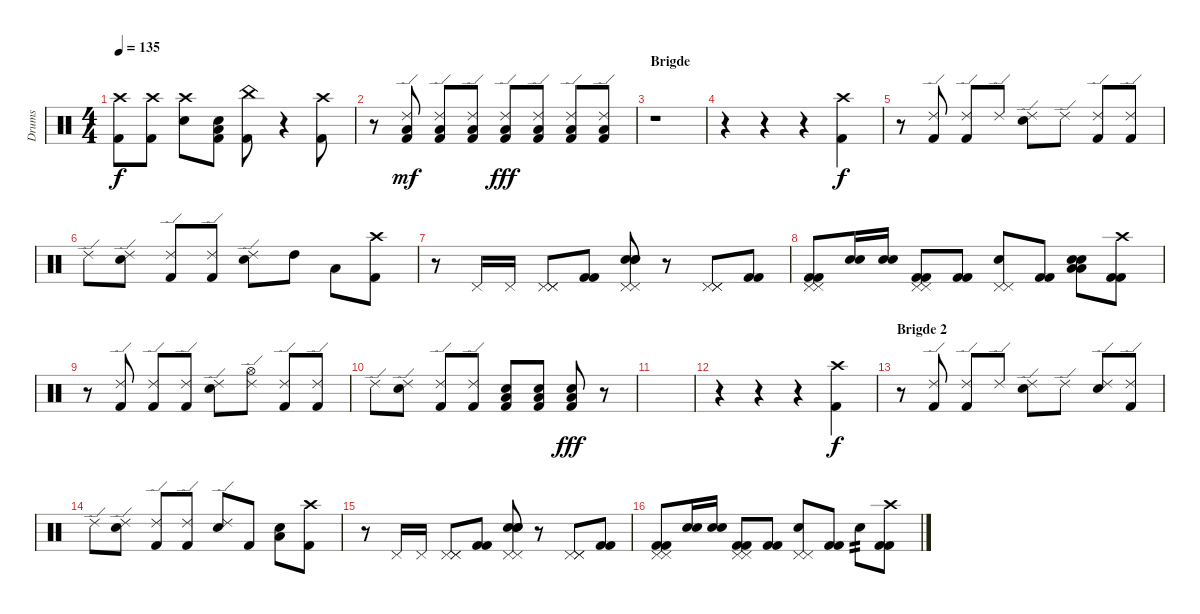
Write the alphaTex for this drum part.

\track ("Drums" "Drums") {instrument percussion}
\staff {score}
\articulation defaults
\ts (4 4)
\tempo 135
\clef neutral
\ks c
("Crash high (hit)" "Kick (hit) 2").8{dy f} ("Crash high (hit)" "Kick (hit) 2").8 ("Crash high (hit)" "Snare (hit) 2").8 ("Snare (hit) 2" "Low Floor Tom (hit)" "Kick (hit) 2").8 ("China (hit)" "Kick (hit) 2").8 r.4 ("Crash high (hit)" "Kick (hit) 2").8 |
r.8 ("Ride (edge) 2" "Low Floor Tom (hit)" "Kick (hit) 2").8{dy mf} ("Ride (edge) 2" "Low Floor Tom (hit)" "Kick (hit) 2").8 ("Ride (edge) 2" "Low Floor Tom (hit)" "Kick (hit) 2").8 ("Ride (edge) 2" "Low Floor Tom (hit)" "Kick (hit) 2").8{dy fff} ("Ride (edge) 2" "Low Floor Tom (hit)" "Kick (hit) 2").8 ("Ride (edge) 2" "Low Floor Tom (hit)" "Kick (hit) 2").8 ("Ride (edge) 2" "Low Floor Tom (hit)" "Kick (hit) 2").8 |
\section ("" "Brigde")
r.1 |
r.4 r.4 r.4 ("Crash high (hit)" "Kick (hit) 2").4{dy f} |
r.8 ("Ride (edge) 2" "Kick (hit) 2").8 ("Ride (edge) 2" "Kick (hit) 2").8 "Ride (edge) 2".8 ("Ride (edge) 2" "Snare (hit) 2").8 "Ride (edge) 2".8 ("Ride (edge) 2" "Kick (hit) 2").8 ("Ride (edge) 2" "Kick (hit) 2").8 |
"Ride (edge) 2".8 ("Ride (edge) 2" "Snare (hit) 2").8 ("Ride (edge) 2" "Kick (hit) 2").8 ("Ride (edge) 2" "Kick (hit) 2").8 ("Ride (edge) 2" "Snare (hit) 2").8 "High Tom (hit)".8 "Low Floor Tom (hit)".8 ("Crash high (hit)" "Kick (hit) 2").8 |
r.8 "Pedal Hi-Hat (hit)".16 "Pedal Hi-Hat (hit)".16 ("Pedal Hi-Hat (hit)" "Pedal Hi-Hat (hit)" "Pedal Hi-Hat (hit)").8 ("Kick (hit) 2" "Kick (hit) 2").8 ("Pedal Hi-Hat (hit)" "Pedal Hi-Hat (hit)" "Snare (hit) 2" "Snare (hit) 2" "Snare (hit) 2").8 r.8 ("Pedal Hi-Hat (hit)" "Pedal Hi-Hat (hit)" "Pedal Hi-Hat (hit)").8 ("Kick (hit) 2" "Kick (hit) 2").8 |
("Pedal Hi-Hat (hit)" "Pedal Hi-Hat (hit)" "Kick (hit) 2" "Kick (hit) 2").8 ("Snare (hit) 2" "Snare (hit) 2").16 ("Snare (hit) 2" "Snare (hit) 2").16 ("Pedal Hi-Hat (hit)" "Pedal Hi-Hat (hit)" "Kick (hit) 2" "Kick (hit) 2").8 ("Kick (hit) 2" "Kick (hit) 2").8 ("Pedal Hi-Hat (hit)" "Pedal Hi-Hat (hit)" "Snare (hit) 2").8 ("Kick (hit) 2" "Kick (hit) 2").8 ("Snare (hit) 2" "Snare (hit) 2" "Low Floor Tom (hit)" "Low Floor Tom (hit)").8 ("Crash high (hit)" "Kick (hit) 2" "Kick (hit) 2").8 |
r.8 ("Ride (edge) 2" "Kick (hit) 2").8 ("Ride (edge) 2" "Kick (hit) 2").8 ("Ride (edge) 2" "Kick (hit) 2").8 ("Ride (edge) 2" "Snare (hit) 2").8 ("Ride (edge) 2" "Hi-Hat (open)").8 ("Ride (edge) 2" "Kick (hit) 2").8 ("Ride (edge) 2" "Kick (hit) 2").8 |
"Ride (edge) 2".8 ("Ride (edge) 2" "Snare (hit) 2").8 ("Ride (edge) 2" "Kick (hit) 2").8 ("Ride (edge) 2" "Kick (hit) 2").8 ("Low Floor Tom (hit)" "Snare (hit) 2" "Kick (hit) 2").8 ("Low Floor Tom (hit)" "Snare (hit) 2" "Kick (hit) 2").8 ("Low Floor Tom (hit)" "Snare (hit) 2" "Kick (hit) 2").8{dy fff} r.8 |
|
r.4 r.4 r.4 ("Crash high (hit)" "Kick (hit) 2").4{dy f} |
\section ("" "Brigde 2")
r.8 ("Ride (edge) 2" "Kick (hit) 2").8 ("Ride (edge) 2" "Kick (hit) 2").8 "Ride (edge) 2".8 ("Ride (edge) 2" "Snare (hit) 2").8 "Ride (edge) 2".8 ("Ride (edge) 2" "Snare (hit) 2").8 ("Ride (edge) 2" "Kick (hit) 2").8 |
"Ride (edge) 2".8 ("Ride (edge) 2" "Snare (hit) 2").8 ("Ride (edge) 2" "Kick (hit) 2").8 ("Ride (edge) 2" "Kick (hit) 2").8 ("Ride (edge) 2" "Snare (hit) 2").8 "Kick (hit) 2".8 ("Snare (hit) 2" "Low Floor Tom (hit)").8 ("Crash high (hit)" "Kick (hit) 2").8 |
r.8 "Pedal Hi-Hat (hit)".16 "Pedal Hi-Hat (hit)".16 ("Pedal Hi-Hat (hit)" "Pedal Hi-Hat (hit)" "Pedal Hi-Hat (hit)").8 ("Kick (hit) 2" "Kick (hit) 2").8 ("Pedal Hi-Hat (hit)" "Pedal Hi-Hat (hit)" "Snare (hit) 2" "Snare (hit) 2" "Snare (hit) 2").8 r.8 ("Pedal Hi-Hat (hit)" "Pedal Hi-Hat (hit)" "Pedal Hi-Hat (hit)").8 ("Kick (hit) 2" "Kick (hit) 2").8 |
("Pedal Hi-Hat (hit)" "Pedal Hi-Hat (hit)" "Kick (hit) 2" "Kick (hit) 2").8 ("Snare (hit) 2" "Snare (hit) 2").16 ("Snare (hit) 2" "Snare (hit) 2").16 ("Pedal Hi-Hat (hit)" "Pedal Hi-Hat (hit)" "Kick (hit) 2" "Kick (hit) 2").8 ("Kick (hit) 2" "Kick (hit) 2").8 ("Pedal Hi-Hat (hit)" "Pedal Hi-Hat (hit)" "Snare (hit) 2").8 ("Kick (hit) 2" "Kick (hit) 2").8 "Snare (hit) 2".8{tp 2} ("Crash high (hit)" "Kick (hit) 2" "Kick (hit) 2").8
